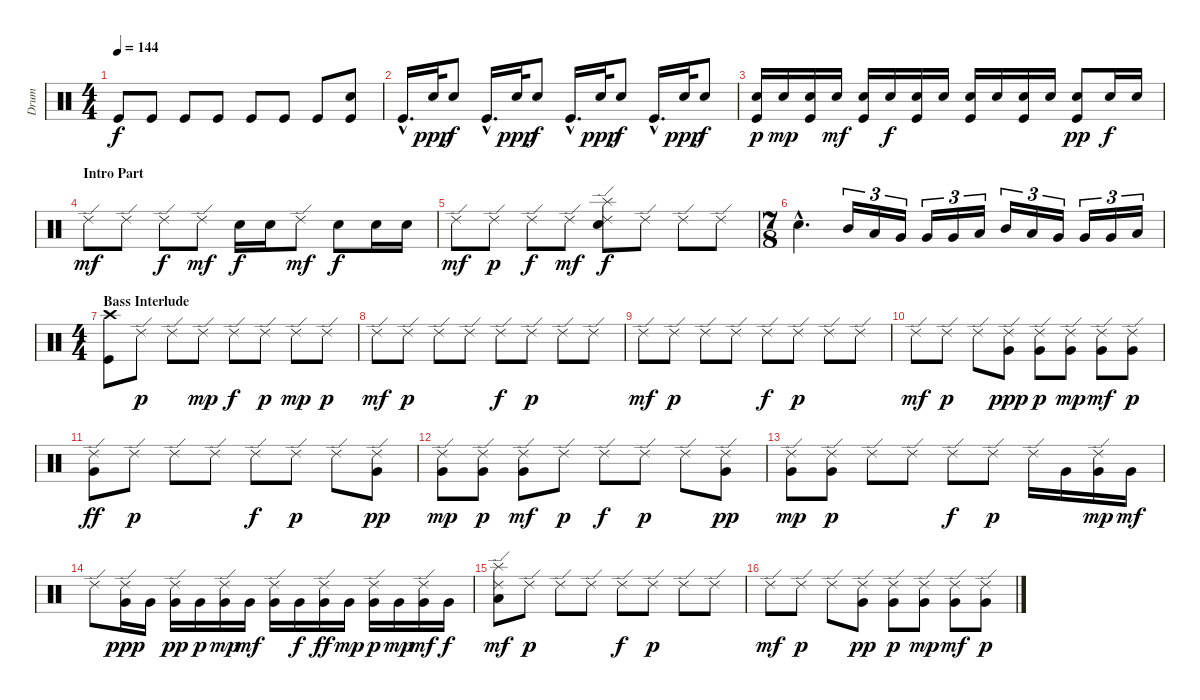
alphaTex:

\track ("Drum" "Drum") {instrument percussion}
\staff {score}
\articulation defaults
\ts (4 4)
\tempo 144
\clef neutral
\ks c "Kick (hit)".8{dy f} "Kick (hit)".8 "Kick (hit)".8 "Kick (hit)".8 "Kick (hit)".8 "Kick (hit)".8 "Kick (hit)".8
("Snare (hit) 2" "Kick (hit)").8 |
"Kick (hit)"{hac}.16{d} "Snare (hit) 2".32{dy ppp} "Snare (hit) 2".8{dy f} "Kick (hit)"{hac}.16{d} "Snare (hit) 2".32{dy ppp} "Snare (hit) 2".8{dy f} "Kick (hit)"{hac}.16{d} "Snare (hit) 2".32{dy ppp} "Snare (hit) 2".8{dy f} "Kick (hit)"{hac}.16{d} "Snare (hit) 2".32{dy ppp} "Snare (hit) 2".8{dy f} |
("Snare (hit) 2" "Kick (hit)").16{dy p} "Snare (hit) 2".16{dy mp} ("Snare (hit) 2" "Kick (hit)").16 "Snare (hit) 2".16{dy mf} ("Snare (hit) 2" "Kick (hit)").16 "Snare (hit) 2".16{dy f} ("Snare (hit) 2" "Kick (hit)").16 "Snare (hit) 2".16 ("Snare (hit) 2" "Kick (hit)").16 "Snare (hit) 2".16 ("Snare (hit) 2" "Kick (hit)").16 "Snare (hit) 2".16 ("Snare (hit) 2" "Kick (hit)").8{dy pp} "Snare (hit) 2".16{dy f} "Snare (hit) 2".16 |
\section ("" "Intro Part")
"Ride (edge) 2".8{dy mf} "Ride (edge) 2".8 "Ride (edge) 2".8{dy f} "Ride (edge) 2".8{dy mf} "Snare (hit) 2".16{dy f} "Snare (hit) 2".16 "Ride (edge) 2".8{dy mf} "Snare (hit) 2".8{dy f} "Snare (hit) 2".16 "Snare (hit) 2".16 |
"Ride (edge) 2".8{dy mf} "Ride (edge) 2".8{dy p} "Ride (edge) 2".8{dy f} "Ride (edge) 2".8{dy mf} ("Ride (edge) 2" "Splash (hit)" "Snare (hit) 2").8{dy f} "Ride (edge) 2".8 "Ride (edge) 2".8 "Ride (edge) 2".8 |
\ts (7 8)
"Snare (hit) 2"{hac}.4{d} "Mid Tom (hit)".16{tu (3 2)} "Low Tom (hit)".16{tu (3 2)} "Very Low Tom (hit)".16{tu (3 2)} "Very Low Tom (hit)".16{tu (3 2)} "Very Low Tom (hit)".16{tu (3 2)} "Low Tom (hit)".16{tu (3 2)} "Mid Tom (hit)".16{tu (3 2)} "Low Tom (hit)".16{tu (3 2)} "Very Low Tom (hit)".16{tu (3 2)} "Very Low Tom (hit)".16{tu (3 2)} "Very Low Tom (hit)".16{tu (3 2)} "Low Tom (hit)".16{tu (3 2)} |
\ts (4 4)
\section ("" "Bass Interlude")
("Crash high (hit)" "Kick (hit)").8 "Ride (edge) 2".8{dy p} "Ride (edge) 2".8 "Ride (edge) 2".8{dy mp} "Ride (edge) 2".8{dy f} "Ride (edge) 2".8{dy p} "Ride (edge) 2".8{dy mp} "Ride (edge) 2".8{dy p} |
"Ride (edge) 2".8{dy mf} "Ride (edge) 2".8{dy p} "Ride (edge) 2".8 "Ride (edge) 2".8 "Ride (edge) 2".8{dy f} "Ride (edge) 2".8{dy p} "Ride (edge) 2".8 "Ride (edge) 2".8 |
"Ride (edge) 2".8{dy mf} "Ride (edge) 2".8{dy p} "Ride (edge) 2".8 "Ride (edge) 2".8 "Ride (edge) 2".8{dy f} "Ride (edge) 2".8{dy p} "Ride (edge) 2".8 "Ride (edge) 2".8 |
"Ride (edge) 2".8{dy mf} "Ride (edge) 2".8{dy p} "Ride (edge) 2".8 ("Ride (edge) 2" "Very Low Tom (hit)").8{dy ppp} ("Ride (edge) 2" "Very Low Tom (hit)").8{dy p} ("Ride (edge) 2" "Very Low Tom (hit)").8{dy mp} ("Ride (edge) 2" "Very Low Tom (hit)").8{dy mf} ("Ride (edge) 2" "Very Low Tom (hit)").8{dy p} |
("Ride (edge) 2" "Very Low Tom (hit)").8{dy ff} "Ride (edge) 2".8{dy p} "Ride (edge) 2".8 "Ride (edge) 2".8 "Ride (edge) 2".8{dy f} "Ride (edge) 2".8{dy p} "Ride (edge) 2".8 ("Ride (edge) 2" "Very Low Tom (hit)").8{dy pp} |
("Ride (edge) 2" "Very Low Tom (hit)").8{dy mp} ("Ride (edge) 2" "Very Low Tom (hit)").8{dy p} ("Ride (edge) 2" "Very Low Tom (hit)").8{dy mf} "Ride (edge) 2".8{dy p} "Ride (edge) 2".8{dy f} "Ride (edge) 2".8{dy p} "Ride (edge) 2".8 ("Ride (edge) 2" "Very Low Tom (hit)").8{dy pp} |
("Ride (edge) 2" "Very Low Tom (hit)").8{dy mp} ("Ride (edge) 2" "Very Low Tom (hit)").8{dy p} "Ride (edge) 2".8 "Ride (edge) 2".8 "Ride (edge) 2".8{dy f} "Ride (edge) 2".8{dy p} "Ride (edge) 2".16 "Very Low Tom (hit)".16 ("Ride (edge) 2" "Very Low Tom (hit)").16{dy mp} "Very Low Tom (hit)".16{dy mf} |
"Ride (edge) 2".8 ("Ride (edge) 2" "Very Low Tom (hit)").16{dy ppp} "Very Low Tom (hit)".16 ("Ride (edge) 2" "Very Low Tom (hit)").16{dy pp} "Very Low Tom (hit)".16{dy p} ("Ride (edge) 2" "Very Low Tom (hit)").16{dy mp} "Very Low Tom (hit)".16{dy mf} ("Ride (edge) 2" "Very Low Tom (hit)").16 "Very Low Tom (hit)".16{dy f} ("Ride (edge) 2" "Very Low Tom (hit)").16{dy ff} "Very Low Tom (hit)".16{dy mp} ("Ride (edge) 2" "Very Low Tom (hit)").16{dy p} "Very Low Tom (hit)".16{dy mp} ("Ride (edge) 2" "Very Low Tom (hit)").16{dy mf} "Very Low Tom (hit)".16{dy f} |
("Splash (hit)" "Ride (edge) 2" "Low Floor Tom (hit)").8{dy mf} "Ride (edge) 2".8{dy p} "Ride (edge) 2".8 "Ride (edge) 2".8 "Ride (edge) 2".8{dy f} "Ride (edge) 2".8{dy p} "Ride (edge) 2".8 "Ride (edge) 2".8 |
"Ride (edge) 2".8{dy mf} "Ride (edge) 2".8{dy p} "Ride (edge) 2".8 ("Ride (edge) 2" "Very Low Tom (hit)").8{dy pp} ("Ride (edge) 2" "Very Low Tom (hit)").8{dy p} ("Ride (edge) 2" "Very Low Tom (hit)").8{dy mp} ("Ride (edge) 2" "Very Low Tom (hit)").8{dy mf} ("Ride (edge) 2" "Very Low Tom (hit)").8{dy p}
